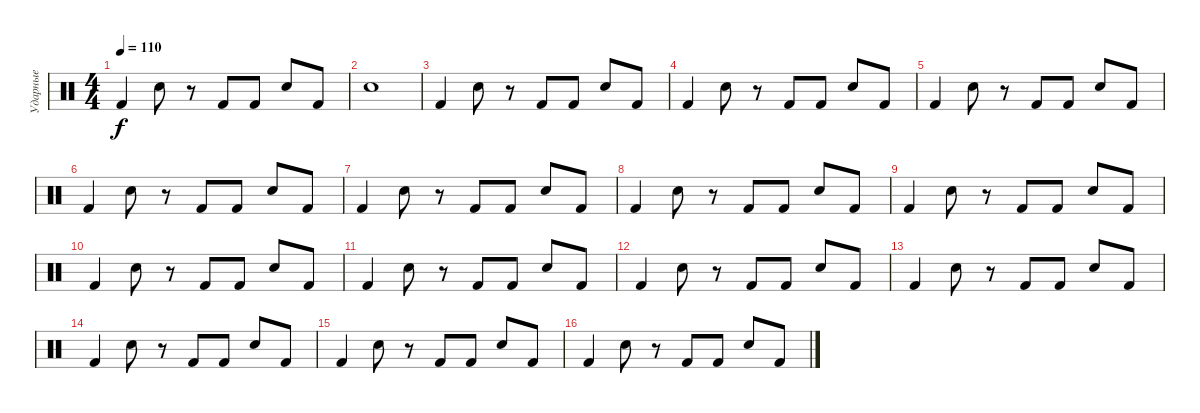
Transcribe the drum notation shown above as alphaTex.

\track ("Ударные" "Ударные") {instrument percussion}
\staff {score}
\articulation defaults
\ts (4 4)
\tempo 110
\clef neutral
\ks c "Kick (hit) 2".4{dy f} "Electric Snare (hit)".8
r.8 "Kick (hit) 2".8 "Kick (hit) 2".8 "Electric Snare (hit)".8 "Kick (hit) 2".8 |
"Electric Snare (hit)".1 |
"Kick (hit) 2".4 "Electric Snare (hit)".8 r.8 "Kick (hit) 2".8 "Kick (hit) 2".8 "Electric Snare (hit)".8 "Kick (hit) 2".8 |
"Kick (hit) 2".4 "Electric Snare (hit)".8 r.8 "Kick (hit) 2".8 "Kick (hit) 2".8 "Electric Snare (hit)".8 "Kick (hit) 2".8 |
"Kick (hit) 2".4 "Electric Snare (hit)".8 r.8 "Kick (hit) 2".8 "Kick (hit) 2".8 "Electric Snare (hit)".8 "Kick (hit) 2".8 |
"Kick (hit) 2".4 "Electric Snare (hit)".8 r.8 "Kick (hit) 2".8 "Kick (hit) 2".8 "Electric Snare (hit)".8 "Kick (hit) 2".8 |
"Kick (hit) 2".4 "Electric Snare (hit)".8 r.8 "Kick (hit) 2".8 "Kick (hit) 2".8 "Electric Snare (hit)".8 "Kick (hit) 2".8 |
"Kick (hit) 2".4 "Electric Snare (hit)".8 r.8 "Kick (hit) 2".8 "Kick (hit) 2".8 "Electric Snare (hit)".8 "Kick (hit) 2".8 |
"Kick (hit) 2".4 "Electric Snare (hit)".8 r.8 "Kick (hit) 2".8 "Kick (hit) 2".8 "Electric Snare (hit)".8 "Kick (hit) 2".8 |
"Kick (hit) 2".4 "Electric Snare (hit)".8 r.8 "Kick (hit) 2".8 "Kick (hit) 2".8 "Electric Snare (hit)".8 "Kick (hit) 2".8 |
"Kick (hit) 2".4 "Electric Snare (hit)".8 r.8 "Kick (hit) 2".8 "Kick (hit) 2".8 "Electric Snare (hit)".8 "Kick (hit) 2".8 |
"Kick (hit) 2".4 "Electric Snare (hit)".8 r.8 "Kick (hit) 2".8 "Kick (hit) 2".8 "Electric Snare (hit)".8 "Kick (hit) 2".8 |
"Kick (hit) 2".4 "Electric Snare (hit)".8 r.8 "Kick (hit) 2".8 "Kick (hit) 2".8 "Electric Snare (hit)".8 "Kick (hit) 2".8 |
"Kick (hit) 2".4 "Electric Snare (hit)".8 r.8 "Kick (hit) 2".8 "Kick (hit) 2".8 "Electric Snare (hit)".8 "Kick (hit) 2".8 |
"Kick (hit) 2".4 "Electric Snare (hit)".8 r.8 "Kick (hit) 2".8 "Kick (hit) 2".8 "Electric Snare (hit)".8 "Kick (hit) 2".8 |
"Kick (hit) 2".4 "Electric Snare (hit)".8 r.8 "Kick (hit) 2".8 "Kick (hit) 2".8 "Electric Snare (hit)".8 "Kick (hit) 2".8
